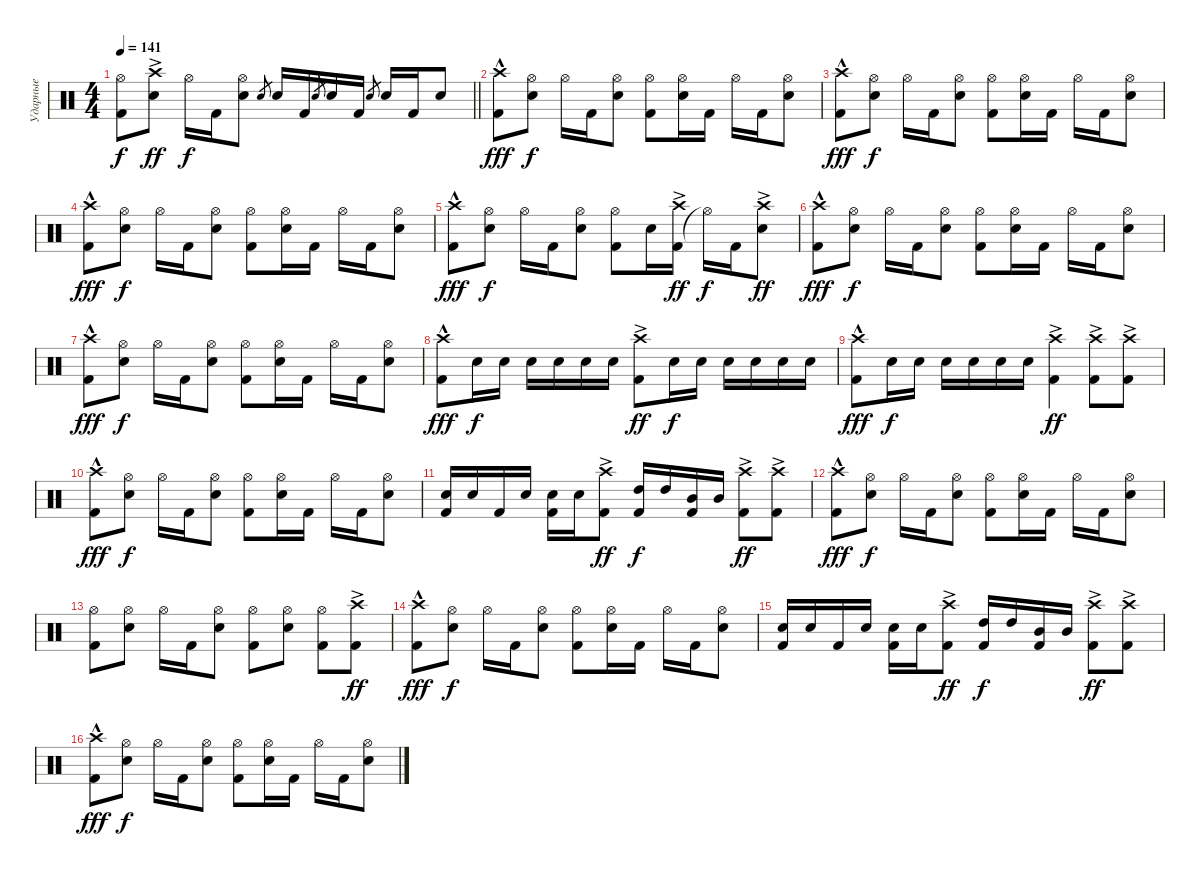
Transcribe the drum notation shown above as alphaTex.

\track ("Ударные" "Ударные") {instrument percussion}
\staff
\articulation defaults
\ts (4 4)
\tempo 141
\clef neutral
\barLineRight lightlight
\ks c
("Kick (hit) 2" "Hi-Hat (open)").8{dy f} ("Snare (hit) 2" "Crash high (hit)"{ac}).8{dy ff} "Hi-Hat (open)".16{dy f} "Kick (hit) 2".16 ("Snare (hit) 2" "Hi-Hat (open)").8 "Snare (hit) 2".8{gr} "Snare (hit) 2".16 "Kick (hit) 2".16 "Snare (hit) 2".8{gr} "Snare (hit) 2".16 "Kick (hit) 2".16 "Snare (hit) 2".8{gr} "Snare (hit) 2".16 "Kick (hit) 2".16 "Snare (hit) 2".8 |
("Kick (hit) 2" "Crash high (hit)"{hac}).8{dy fff} ("Snare (hit) 2" "Hi-Hat (open)").8{dy f} "Hi-Hat (open)".16 "Kick (hit) 2".16 ("Snare (hit) 2" "Hi-Hat (open)").8 ("Kick (hit) 2" "Hi-Hat (open)").8 ("Snare (hit) 2" "Hi-Hat (open)").16 "Kick (hit) 2".16 "Hi-Hat (open)".16 "Kick (hit) 2".16 ("Snare (hit) 2" "Hi-Hat (open)").8 |
("Kick (hit) 2" "Crash high (hit)"{hac}).8{dy fff} ("Snare (hit) 2" "Hi-Hat (open)").8{dy f} "Hi-Hat (open)".16 "Kick (hit) 2".16 ("Snare (hit) 2" "Hi-Hat (open)").8 ("Kick (hit) 2" "Hi-Hat (open)").8 ("Snare (hit) 2" "Hi-Hat (open)").16 "Kick (hit) 2".16 "Hi-Hat (open)".16 "Kick (hit) 2".16 ("Snare (hit) 2" "Hi-Hat (open)").8 |
("Kick (hit) 2" "Crash high (hit)"{hac}).8{dy fff} ("Snare (hit) 2" "Hi-Hat (open)").8{dy f} "Hi-Hat (open)".16 "Kick (hit) 2".16 ("Snare (hit) 2" "Hi-Hat (open)").8 ("Kick (hit) 2" "Hi-Hat (open)").8 ("Snare (hit) 2" "Hi-Hat (open)").16 "Kick (hit) 2".16 "Hi-Hat (open)".16 "Kick (hit) 2".16 ("Snare (hit) 2" "Hi-Hat (open)").8 |
("Kick (hit) 2" "Crash high (hit)"{hac}).8{dy fff} ("Snare (hit) 2" "Hi-Hat (open)").8{dy f} "Hi-Hat (open)".16 "Kick (hit) 2".16 ("Snare (hit) 2" "Hi-Hat (open)").8 ("Kick (hit) 2" "Hi-Hat (open)").8 "Snare (hit) 2".16 ("Kick (hit) 2" "Crash high (hit)"{ac}).16{dy ff} "Hi-Hat (open)"{t}.16{dy f} "Kick (hit) 2".16 ("Snare (hit) 2" "Crash high (hit)"{ac}).8{dy ff} |
("Kick (hit) 2" "Crash high (hit)"{hac}).8{dy fff} ("Snare (hit) 2" "Hi-Hat (open)").8{dy f} "Hi-Hat (open)".16 "Kick (hit) 2".16 ("Snare (hit) 2" "Hi-Hat (open)").8 ("Kick (hit) 2" "Hi-Hat (open)").8 ("Snare (hit) 2" "Hi-Hat (open)").16 "Kick (hit) 2".16 "Hi-Hat (open)".16 "Kick (hit) 2".16 ("Snare (hit) 2" "Hi-Hat (open)").8 |
("Kick (hit) 2" "Crash high (hit)"{hac}).8{dy fff} ("Snare (hit) 2" "Hi-Hat (open)").8{dy f} "Hi-Hat (open)".16 "Kick (hit) 2".16 ("Snare (hit) 2" "Hi-Hat (open)").8 ("Kick (hit) 2" "Hi-Hat (open)").8 ("Snare (hit) 2" "Hi-Hat (open)").16 "Kick (hit) 2".16 "Hi-Hat (open)".16 "Kick (hit) 2".16 ("Snare (hit) 2" "Hi-Hat (open)").8 |
("Kick (hit) 2" "Crash high (hit)"{hac}).8{dy fff} "Snare (hit) 2".16{dy f} "Snare (hit) 2".16 "Snare (hit) 2".16 "Snare (hit) 2".16 "Snare (hit) 2".16 "Snare (hit) 2".16 ("Kick (hit) 2" "Crash high (hit)"{ac}).8{dy ff} "Snare (hit) 2".16{dy f} "Snare (hit) 2".16 "Snare (hit) 2".16 "Snare (hit) 2".16 "Snare (hit) 2".16 "Snare (hit) 2".16 |
("Kick (hit) 2" "Crash high (hit)"{hac}).8{dy fff} "Snare (hit) 2".16{dy f} "Snare (hit) 2".16 "Snare (hit) 2".16 "Snare (hit) 2".16 "Snare (hit) 2".16 "Snare (hit) 2".16 ("Kick (hit) 2" "Crash high (hit)"{ac}).4{dy ff} ("Kick (hit) 2" "Crash high (hit)"{ac}).8 ("Kick (hit) 2" "Crash high (hit)"{ac}).8 |
("Kick (hit) 2" "Crash high (hit)"{hac}).8{dy fff} ("Snare (hit) 2" "Hi-Hat (open)").8{dy f} "Hi-Hat (open)".16 "Kick (hit) 2".16 ("Snare (hit) 2" "Hi-Hat (open)").8 ("Kick (hit) 2" "Hi-Hat (open)").8 ("Snare (hit) 2" "Hi-Hat (open)").16 "Kick (hit) 2".16 "Hi-Hat (open)".16 "Kick (hit) 2".16 ("Snare (hit) 2" "Hi-Hat (open)").8 |
("Kick (hit) 2" "Snare (hit) 2").16 "Snare (hit) 2".16 "Kick (hit) 2".16 "Snare (hit) 2".16 ("Kick (hit) 2" "Snare (hit) 2").16 "Snare (hit) 2".16 ("Kick (hit) 2" "Crash high (hit)"{ac}).8{dy ff} ("Kick (hit) 2" "High Tom (hit)").16{dy f} "High Tom (hit)".16 ("Kick (hit) 2" "Mid Tom (hit)").16 "Mid Tom (hit)".16 ("Kick (hit) 2" "Crash high (hit)"{ac}).8{dy ff} ("Kick (hit) 2" "Crash high (hit)"{ac}).8 |
("Kick (hit) 2" "Crash high (hit)"{hac}).8{dy fff} ("Snare (hit) 2" "Hi-Hat (open)").8{dy f} "Hi-Hat (open)".16 "Kick (hit) 2".16 ("Snare (hit) 2" "Hi-Hat (open)").8 ("Kick (hit) 2" "Hi-Hat (open)").8 ("Snare (hit) 2" "Hi-Hat (open)").16 "Kick (hit) 2".16 "Hi-Hat (open)".16 "Kick (hit) 2".16 ("Snare (hit) 2" "Hi-Hat (open)").8 |
("Kick (hit) 2" "Hi-Hat (open)").8 ("Snare (hit) 2" "Hi-Hat (open)").8 "Hi-Hat (open)".16 "Kick (hit) 2".16 ("Snare (hit) 2" "Hi-Hat (open)").8 ("Kick (hit) 2" "Hi-Hat (open)").8 ("Snare (hit) 2" "Hi-Hat (open)").8 ("Kick (hit) 2" "Hi-Hat (open)").8 ("Kick (hit) 2" "Crash high (hit)"{ac}).8{dy ff} |
("Kick (hit) 2" "Crash high (hit)"{hac}).8{dy fff} ("Snare (hit) 2" "Hi-Hat (open)").8{dy f} "Hi-Hat (open)".16 "Kick (hit) 2".16 ("Snare (hit) 2" "Hi-Hat (open)").8 ("Kick (hit) 2" "Hi-Hat (open)").8 ("Snare (hit) 2" "Hi-Hat (open)").16 "Kick (hit) 2".16 "Hi-Hat (open)".16 "Kick (hit) 2".16 ("Snare (hit) 2" "Hi-Hat (open)").8 |
("Kick (hit) 2" "Snare (hit) 2").16 "Snare (hit) 2".16 "Kick (hit) 2".16 "Snare (hit) 2".16 ("Kick (hit) 2" "Snare (hit) 2").16 "Snare (hit) 2".16 ("Kick (hit) 2" "Crash high (hit)"{ac}).8{dy ff} ("Kick (hit) 2" "High Tom (hit)").16{dy f} "High Tom (hit)".16 ("Kick (hit) 2" "Mid Tom (hit)").16 "Mid Tom (hit)".16 ("Kick (hit) 2" "Crash high (hit)"{ac}).8{dy ff} ("Kick (hit) 2" "Crash high (hit)"{ac}).8 |
("Kick (hit) 2" "Crash high (hit)"{hac}).8{dy fff} ("Snare (hit) 2" "Hi-Hat (open)").8{dy f} "Hi-Hat (open)".16 "Kick (hit) 2".16 ("Snare (hit) 2" "Hi-Hat (open)").8 ("Kick (hit) 2" "Hi-Hat (open)").8 ("Snare (hit) 2" "Hi-Hat (open)").16 "Kick (hit) 2".16 "Hi-Hat (open)".16 "Kick (hit) 2".16 ("Snare (hit) 2" "Hi-Hat (open)").8
